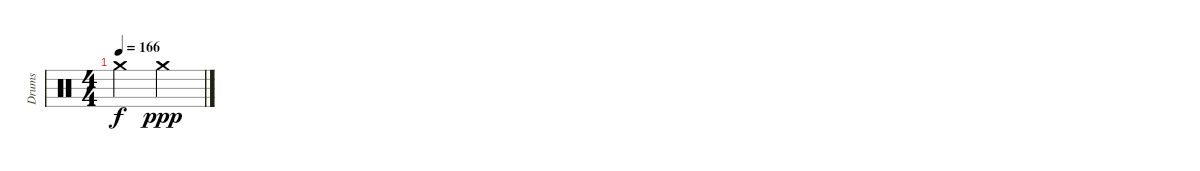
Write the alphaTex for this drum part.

\track ("Drums" "Drums") {instrument percussion}
\staff {score}
\articulation defaults
\ts (4 4)
\tempo 166
\clef neutral
\ks c "Crash medium (hit)".2{dy f} "Crash medium (hit)".2{dy ppp}
